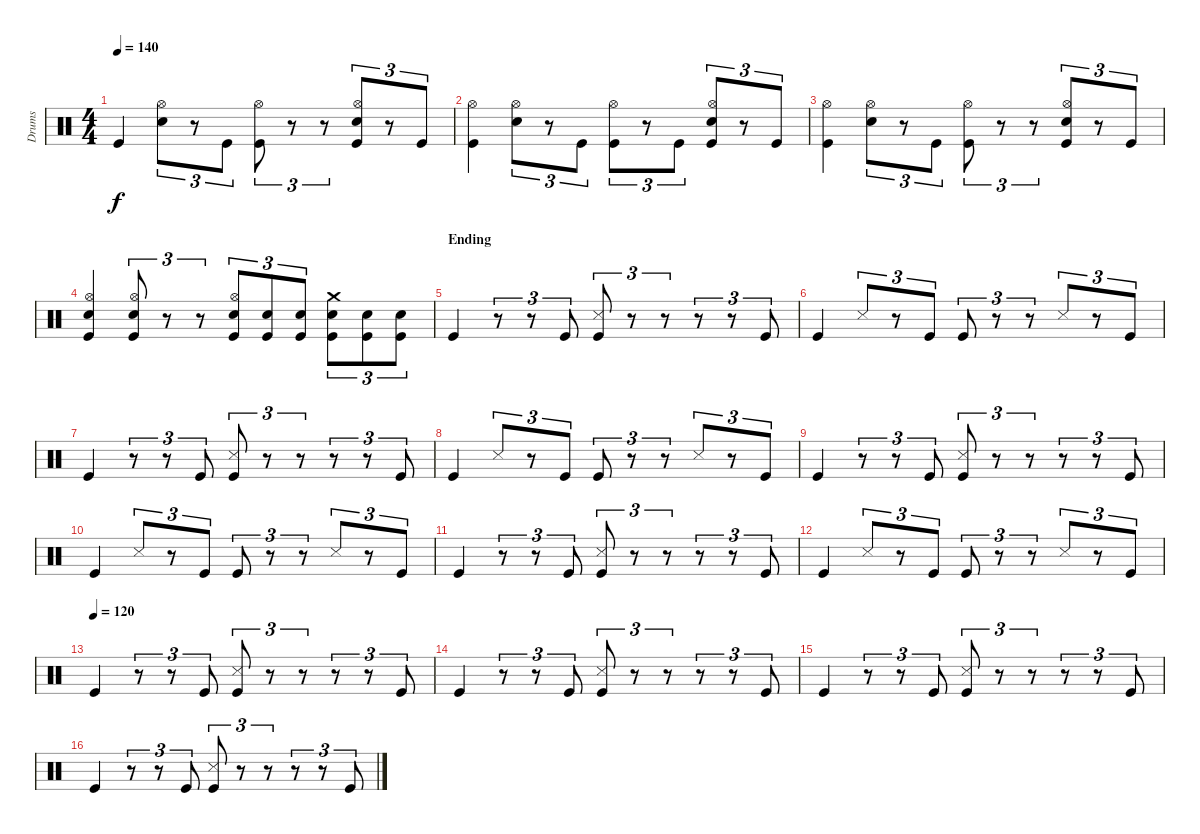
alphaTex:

\track ("Drums" "Drums") {instrument percussion}
\staff {score}
\articulation defaults
\ts (4 4)
\tempo 140
\clef neutral
\ks c "Kick (hit)".4{dy f}
("Hi-Hat (open)" "Electric Snare (hit)").8{tu (3 2)} r.8{tu (3 2)} "Kick (hit)".8{tu (3 2)} ("Hi-Hat (open)" "Kick (hit)").8{tu (3 2)} r.8{tu (3 2)} r.8{tu (3 2)} ("Hi-Hat (open)" "Kick (hit)" "Electric Snare (hit)").8{tu (3 2)} r.8{tu (3 2)} "Kick (hit)".8{tu (3 2)} |
("Hi-Hat (open)" "Kick (hit)").4 ("Hi-Hat (open)" "Electric Snare (hit)").8{tu (3 2)} r.8{tu (3 2)} "Kick (hit)".8{tu (3 2)} ("Hi-Hat (open)" "Kick (hit)").8{tu (3 2)} r.8{tu (3 2)} "Kick (hit)".8{tu (3 2)} ("Hi-Hat (open)" "Kick (hit)" "Electric Snare (hit)").8{tu (3 2)} r.8{tu (3 2)} "Kick (hit)".8{tu (3 2)} |
("Hi-Hat (open)" "Kick (hit)").4 ("Hi-Hat (open)" "Electric Snare (hit)").8{tu (3 2)} r.8{tu (3 2)} "Kick (hit)".8{tu (3 2)} ("Hi-Hat (open)" "Kick (hit)").8{tu (3 2)} r.8{tu (3 2)} r.8{tu (3 2)} ("Hi-Hat (open)" "Kick (hit)" "Electric Snare (hit)").8{tu (3 2)} r.8{tu (3 2)} "Kick (hit)".8{tu (3 2)} |
("Hi-Hat (open)" "Kick (hit)" "Electric Snare (hit)").4 ("Hi-Hat (open)" "Kick (hit)" "Electric Snare (hit)").8{tu (3 2)} r.8{tu (3 2)} r.8{tu (3 2)} ("Hi-Hat (open)" "Kick (hit)" "Electric Snare (hit)").8{tu (3 2)} ("Kick (hit)" "Electric Snare (hit)").8{tu (3 2)} ("Kick (hit)" "Electric Snare (hit)").8{tu (3 2)} ("Crash medium (hit)" "Kick (hit)" "Electric Snare (hit)").8{tu (3 2)} ("Kick (hit)" "Electric Snare (hit)").8{tu (3 2)} ("Kick (hit)" "Electric Snare (hit)").8{tu (3 2)} |
\section ("" "Ending")
"Kick (hit)".4 r.8{tu (3 2)} r.8{tu (3 2)} "Kick (hit)".8{tu (3 2)} ("Snare (side stick) 3" "Kick (hit)").8{tu (3 2)} r.8{tu (3 2)} r.8{tu (3 2)} r.8{tu (3 2)} r.8{tu (3 2)} "Kick (hit)".8{tu (3 2)} |
"Kick (hit)".4 "Snare (side stick) 3".8{tu (3 2)} r.8{tu (3 2)} "Kick (hit)".8{tu (3 2)} "Kick (hit)".8{tu (3 2)} r.8{tu (3 2)} r.8{tu (3 2)} "Snare (side stick) 3".8{tu (3 2)} r.8{tu (3 2)} "Kick (hit)".8{tu (3 2)} |
"Kick (hit)".4 r.8{tu (3 2)} r.8{tu (3 2)} "Kick (hit)".8{tu (3 2)} ("Snare (side stick) 3" "Kick (hit)").8{tu (3 2)} r.8{tu (3 2)} r.8{tu (3 2)} r.8{tu (3 2)} r.8{tu (3 2)} "Kick (hit)".8{tu (3 2)} |
"Kick (hit)".4 "Snare (side stick) 3".8{tu (3 2)} r.8{tu (3 2)} "Kick (hit)".8{tu (3 2)} "Kick (hit)".8{tu (3 2)} r.8{tu (3 2)} r.8{tu (3 2)} "Snare (side stick) 3".8{tu (3 2)} r.8{tu (3 2)} "Kick (hit)".8{tu (3 2)} |
"Kick (hit)".4 r.8{tu (3 2)} r.8{tu (3 2)} "Kick (hit)".8{tu (3 2)} ("Snare (side stick) 3" "Kick (hit)").8{tu (3 2)} r.8{tu (3 2)} r.8{tu (3 2)} r.8{tu (3 2)} r.8{tu (3 2)} "Kick (hit)".8{tu (3 2)} |
"Kick (hit)".4 "Snare (side stick) 3".8{tu (3 2)} r.8{tu (3 2)} "Kick (hit)".8{tu (3 2)} "Kick (hit)".8{tu (3 2)} r.8{tu (3 2)} r.8{tu (3 2)} "Snare (side stick) 3".8{tu (3 2)} r.8{tu (3 2)} "Kick (hit)".8{tu (3 2)} |
"Kick (hit)".4 r.8{tu (3 2)} r.8{tu (3 2)} "Kick (hit)".8{tu (3 2)} ("Snare (side stick) 3" "Kick (hit)").8{tu (3 2)} r.8{tu (3 2)} r.8{tu (3 2)} r.8{tu (3 2)} r.8{tu (3 2)} "Kick (hit)".8{tu (3 2)} |
"Kick (hit)".4 "Snare (side stick) 3".8{tu (3 2)} r.8{tu (3 2)} "Kick (hit)".8{tu (3 2)} "Kick (hit)".8{tu (3 2)} r.8{tu (3 2)} r.8{tu (3 2)} "Snare (side stick) 3".8{tu (3 2)} r.8{tu (3 2)} "Kick (hit)".8{tu (3 2)} |
\tempo (120)
"Kick (hit)".4 r.8{tu (3 2)} r.8{tu (3 2)} "Kick (hit)".8{tu (3 2)} ("Snare (side stick) 3" "Kick (hit)").8{tu (3 2)} r.8{tu (3 2)} r.8{tu (3 2)} r.8{tu (3 2)} r.8{tu (3 2)} "Kick (hit)".8{tu (3 2)} |
"Kick (hit)".4 r.8{tu (3 2)} r.8{tu (3 2)} "Kick (hit)".8{tu (3 2)} ("Snare (side stick) 3" "Kick (hit)").8{tu (3 2)} r.8{tu (3 2)} r.8{tu (3 2)} r.8{tu (3 2)} r.8{tu (3 2)} "Kick (hit)".8{tu (3 2)} |
"Kick (hit)".4 r.8{tu (3 2)} r.8{tu (3 2)} "Kick (hit)".8{tu (3 2)} ("Snare (side stick) 3" "Kick (hit)").8{tu (3 2)} r.8{tu (3 2)} r.8{tu (3 2)} r.8{tu (3 2)} r.8{tu (3 2)} "Kick (hit)".8{tu (3 2)} |
"Kick (hit)".4 r.8{tu (3 2)} r.8{tu (3 2)} "Kick (hit)".8{tu (3 2)} ("Snare (side stick) 3" "Kick (hit)").8{tu (3 2)} r.8{tu (3 2)} r.8{tu (3 2)} r.8{tu (3 2)} r.8{tu (3 2)} "Kick (hit)".8{tu (3 2)}
